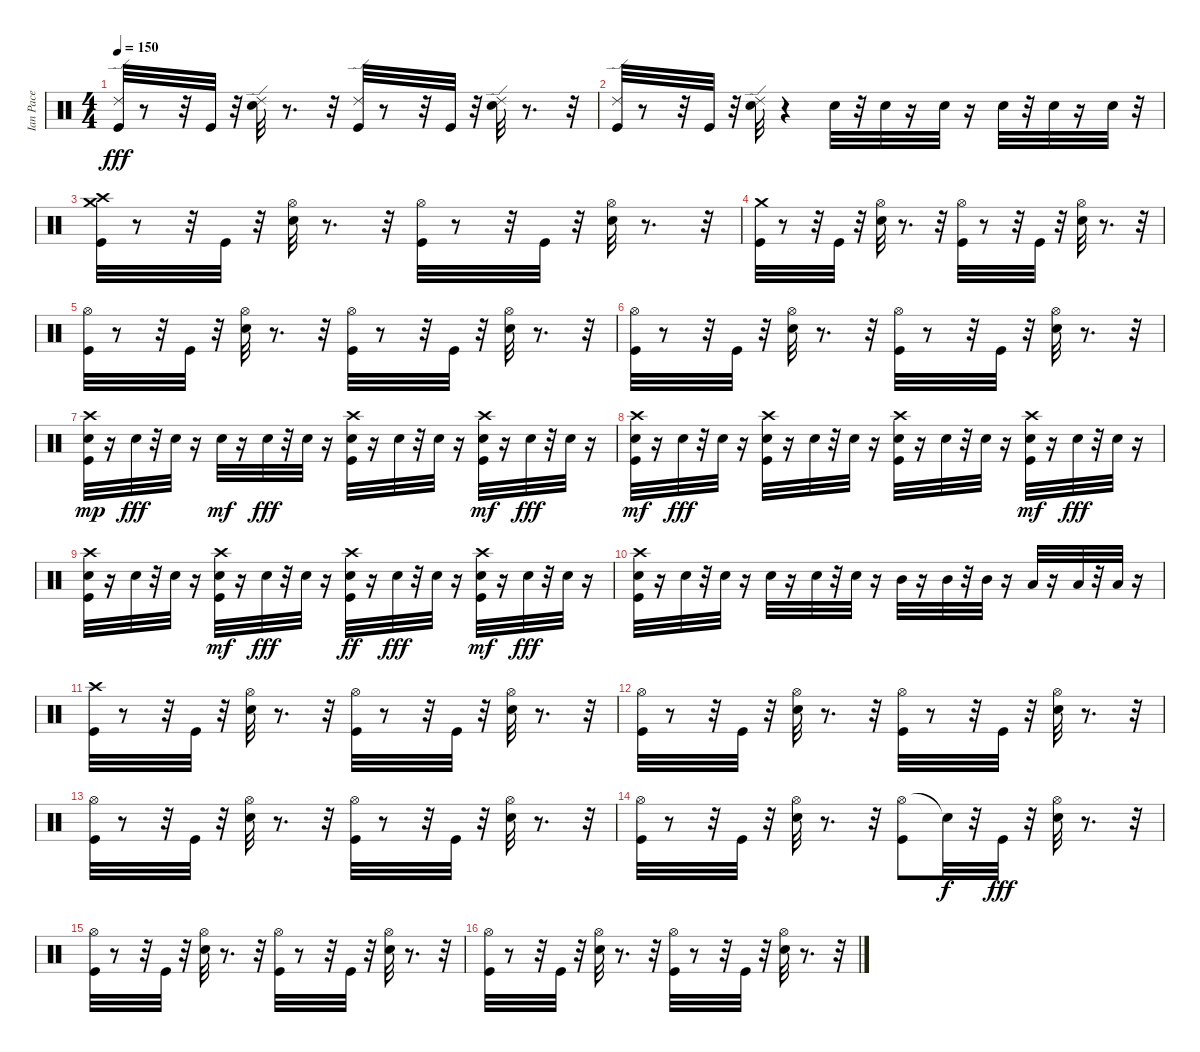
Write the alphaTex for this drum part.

\track ("Ian Pace" "Ian Pace") {instrument percussion}
\staff {score}
\articulation defaults
\ts (4 4)
\tempo 150
\clef neutral
\ks c
("Ride (edge) 2" "Kick (hit)").32{dy fff} r.8 r.32 "Kick (hit)".32 r.32 ("Ride (edge) 2" "Electric Snare (hit)").32 r.8{d} r.32 ("Ride (edge) 2" "Kick (hit)").32 r.8 r.32 "Kick (hit)".32 r.32 ("Electric Snare (hit)" "Ride (edge) 2").32 r.8{d} r.32 |
("Kick (hit)" "Ride (edge) 2").32 r.8 r.32 "Kick (hit)".32 r.32 ("Electric Snare (hit)" "Ride (edge) 2").32 r.4 "Electric Snare (hit)".32 r.32 "Electric Snare (hit)".32 r.16 "Electric Snare (hit)".32 r.16 "Electric Snare (hit)".32 r.32 "Electric Snare (hit)".32 r.16 "Electric Snare (hit)".32 r.32 |
("Crash high (hit)" "Crash medium (hit)" "Kick (hit)").32 r.8 r.32 "Kick (hit)".32 r.32 ("Electric Snare (hit)" "Hi-Hat (open)").32 r.8{d} r.32 ("Kick (hit)" "Hi-Hat (open)").32 r.8 r.32 "Kick (hit)".32 r.32 ("Hi-Hat (open)" "Electric Snare (hit)").32 r.8{d} r.32 |
("Kick (hit)" "Crash medium (hit)").32 r.8 r.32 "Kick (hit)".32 r.32 ("Electric Snare (hit)" "Hi-Hat (open)").32 r.8{d} r.32 ("Kick (hit)" "Hi-Hat (open)").32 r.8 r.32 "Kick (hit)".32 r.32 ("Hi-Hat (open)" "Electric Snare (hit)").32 r.8{d} r.32 |
("Kick (hit)" "Hi-Hat (open)").32 r.8 r.32 "Kick (hit)".32 r.32 ("Electric Snare (hit)" "Hi-Hat (open)").32 r.8{d} r.32 ("Kick (hit)" "Hi-Hat (open)").32 r.8 r.32 "Kick (hit)".32 r.32 ("Electric Snare (hit)" "Hi-Hat (open)").32 r.8{d} r.32 |
("Hi-Hat (open)" "Kick (hit)").32 r.8 r.32 "Kick (hit)".32 r.32 ("Hi-Hat (open)" "Electric Snare (hit)").32 r.8{d} r.32 ("Kick (hit)" "Hi-Hat (open)").32 r.8 r.32 "Kick (hit)".32 r.32 ("Electric Snare (hit)" "Hi-Hat (open)").32 r.8{d} r.32 |
("Electric Snare (hit)" "Kick (hit)" "Crash high (hit)").32{dy mp} r.16 "Electric Snare (hit)".32{dy fff} r.32 "Electric Snare (hit)".32 r.16 "Electric Snare (hit)".32{dy mf} r.16 "Electric Snare (hit)".32{dy fff} r.32 "Electric Snare (hit)".32 r.16 ("Electric Snare (hit)" "Crash high (hit)" "Kick (hit)").32 r.16 "Electric Snare (hit)".32 r.32 "Electric Snare (hit)".32 r.16 ("Electric Snare (hit)" "Kick (hit)" "Crash high (hit)").32{dy mf} r.16 "Electric Snare (hit)".32{dy fff} r.32 "Electric Snare (hit)".32 r.16 |
("Electric Snare (hit)" "Kick (hit)" "Crash high (hit)").32{dy mf} r.16 "Electric Snare (hit)".32{dy fff} r.32 "Electric Snare (hit)".32 r.16 ("Electric Snare (hit)" "Kick (hit)" "Crash high (hit)").32 r.16 "Electric Snare (hit)".32 r.32 "Electric Snare (hit)".32 r.16 ("Electric Snare (hit)" "Kick (hit)" "Crash high (hit)").32 r.16 "Electric Snare (hit)".32 r.32 "Electric Snare (hit)".32 r.16 ("Kick (hit)" "Electric Snare (hit)" "Crash high (hit)").32{dy mf} r.16 "Electric Snare (hit)".32{dy fff} r.32 "Electric Snare (hit)".32 r.16 |
("Electric Snare (hit)" "Kick (hit)" "Crash high (hit)").32 r.16 "Electric Snare (hit)".32 r.32 "Electric Snare (hit)".32 r.16 ("Kick (hit)" "Crash high (hit)" "Electric Snare (hit)").32{dy mf} r.16 "Electric Snare (hit)".32{dy fff} r.32 "Electric Snare (hit)".32 r.16 ("Electric Snare (hit)" "Kick (hit)" "Crash high (hit)").32{dy ff} r.16 "Electric Snare (hit)".32{dy fff} r.32 "Electric Snare (hit)".32 r.16 ("Kick (hit)" "Crash high (hit)" "Electric Snare (hit)").32{dy mf} r.16 "Electric Snare (hit)".32{dy fff} r.32 "Electric Snare (hit)".32 r.16 |
("Electric Snare (hit)" "Crash high (hit)" "Kick (hit)").32 r.16 "Electric Snare (hit)".32 r.32 "Electric Snare (hit)".32 r.16 "Electric Snare (hit)".32 r.16 "Electric Snare (hit)".32 r.32 "Electric Snare (hit)".32 r.16 "Mid Tom (hit)".32 r.16 "Mid Tom (hit)".32 r.32 "Mid Tom (hit)".32 r.16 "Low Tom (hit)".32 r.16 "Low Tom (hit)".32 r.32 "Low Tom (hit)".32 r.16 |
("Kick (hit)" "Crash high (hit)").32 r.8 r.32 "Kick (hit)".32 r.32 ("Electric Snare (hit)" "Hi-Hat (open)").32 r.8{d} r.32 ("Kick (hit)" "Hi-Hat (open)").32 r.8 r.32 "Kick (hit)".32 r.32 ("Electric Snare (hit)" "Hi-Hat (open)").32 r.8{d} r.32 |
("Kick (hit)" "Hi-Hat (open)").32 r.8 r.32 "Kick (hit)".32 r.32 ("Electric Snare (hit)" "Hi-Hat (open)").32 r.8{d} r.32 ("Kick (hit)" "Hi-Hat (open)").32 r.8 r.32 "Kick (hit)".32 r.32 ("Electric Snare (hit)" "Hi-Hat (open)").32 r.8{d} r.32 |
("Kick (hit)" "Hi-Hat (open)").32 r.8 r.32 "Kick (hit)".32 r.32 ("Electric Snare (hit)" "Hi-Hat (open)").32 r.8{d} r.32 ("Kick (hit)" "Hi-Hat (open)").32 r.8 r.32 "Kick (hit)".32 r.32 ("Electric Snare (hit)" "Hi-Hat (open)").32 r.8{d} r.32 |
("Kick (hit)" "Hi-Hat (open)").32 r.8 r.32 "Kick (hit)".32 r.32 ("Electric Snare (hit)" "Hi-Hat (open)").32 r.8{d} r.32 ("Hi-Hat (open)" "Kick (hit)").8 "Snare (hit)"{t}.32{dy f} r.32 "Kick (hit)".32{dy fff} r.32 ("Electric Snare (hit)" "Hi-Hat (open)").32 r.8{d} r.32 |
("Kick (hit)" "Hi-Hat (open)").32 r.8 r.32 "Kick (hit)".32 r.32 ("Electric Snare (hit)" "Hi-Hat (open)").32 r.8{d} r.32 ("Kick (hit)" "Hi-Hat (open)").32 r.8 r.32 "Kick (hit)".32 r.32 ("Electric Snare (hit)" "Hi-Hat (open)").32 r.8{d} r.32 |
("Kick (hit)" "Hi-Hat (open)").32 r.8 r.32 "Kick (hit)".32 r.32 ("Electric Snare (hit)" "Hi-Hat (open)").32 r.8{d} r.32 ("Kick (hit)" "Hi-Hat (open)").32 r.8 r.32 "Kick (hit)".32 r.32 ("Electric Snare (hit)" "Hi-Hat (open)").32 r.8{d} r.32
